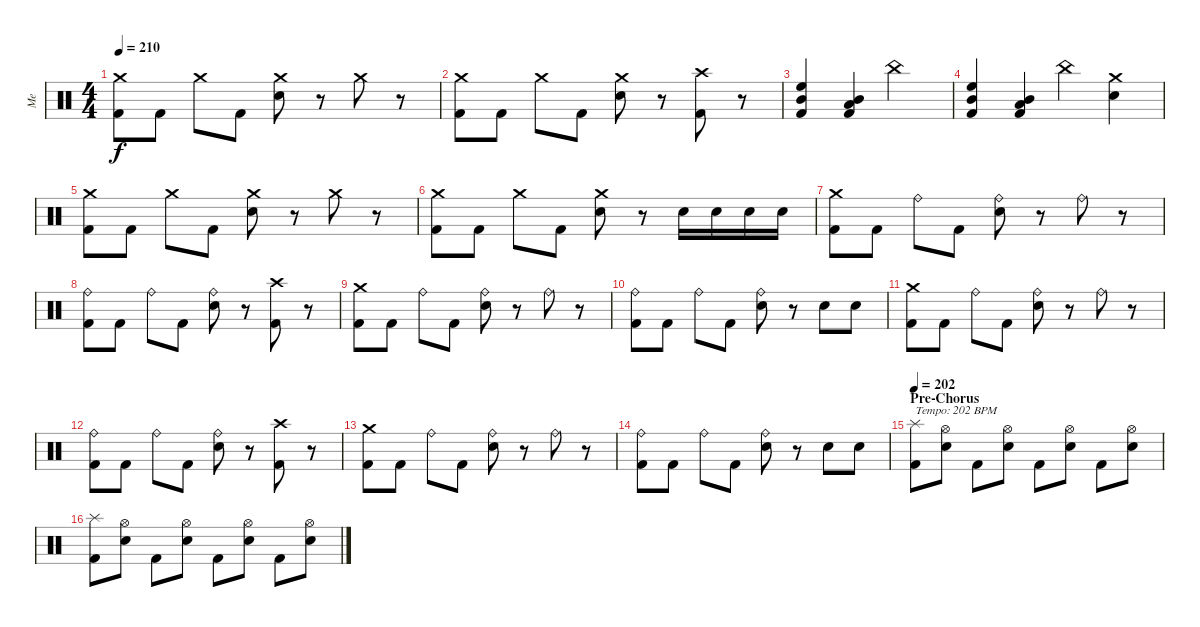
\track ("Me" "Me") {instrument percussion}
\staff {score}
\articulation defaults
\ts (4 4)
\tempo 210
\clef neutral
\ks c
("Crash medium (hit)" "Kick (hit) 2").8{dy f} "Kick (hit) 2".8 "Crash medium (hit)".8 "Kick (hit) 2".8 ("Crash medium (hit)" "Electric Snare (hit)").8 r.8 "Crash medium (hit)".8 r.8 |
("Crash medium (hit)" "Kick (hit) 2").8 "Kick (hit) 2".8 "Crash medium (hit)".8 "Kick (hit) 2".8 ("Crash medium (hit)" "Electric Snare (hit)").8 r.8 ("Crash high (hit)" "Kick (hit) 2").8 r.8 |
("High Floor Tom (hit)" "Mid Tom (hit)" "Kick (hit) 2").4 ("Mid Tom (hit)" "Low Tom (hit)" "Kick (hit) 2").4 "China (hit)".2 |
("High Floor Tom (hit)" "Mid Tom (hit)" "Kick (hit) 2").4 ("Mid Tom (hit)" "Low Tom (hit)" "Kick (hit) 2").4 "China (hit)".4 ("Crash medium (hit)" "Electric Snare (hit)").4 |
("Crash medium (hit)" "Kick (hit) 2").8 "Kick (hit) 2".8 "Crash medium (hit)".8 "Kick (hit) 2".8 ("Crash medium (hit)" "Electric Snare (hit)").8 r.8 "Crash medium (hit)".8 r.8 |
("Crash medium (hit)" "Kick (hit) 2").8 "Kick (hit) 2".8 "Crash medium (hit)".8 "Kick (hit) 2".8 ("Crash medium (hit)" "Electric Snare (hit)").8 r.8 "Electric Snare (hit)".16 "Electric Snare (hit)".16 "Electric Snare (hit)".16 "Electric Snare (hit)".16 |
("Crash medium (hit)" "Kick (hit) 2").8 "Kick (hit) 2".8 "Ride (bell)".8 "Kick (hit) 2".8 ("Ride (bell)" "Electric Snare (hit)").8 r.8 "Ride (bell)".8 r.8 |
("Ride (bell)" "Kick (hit) 2").8 "Kick (hit) 2".8 "Ride (bell)".8 "Kick (hit) 2".8 ("Ride (bell)" "Electric Snare (hit)").8 r.8 ("Crash high (hit)" "Kick (hit) 2").8 r.8 |
("Crash medium (hit)" "Kick (hit) 2").8 "Kick (hit) 2".8 "Ride (bell)".8 "Kick (hit) 2".8 ("Ride (bell)" "Electric Snare (hit)").8 r.8 "Ride (bell)".8 r.8 |
("Ride (bell)" "Kick (hit) 2").8 "Kick (hit) 2".8 "Ride (bell)".8 "Kick (hit) 2".8 ("Ride (bell)" "Electric Snare (hit)").8 r.8 "Electric Snare (hit)".8 "Electric Snare (hit)".8 |
("Crash medium (hit)" "Kick (hit) 2").8 "Kick (hit) 2".8 "Ride (bell)".8 "Kick (hit) 2".8 ("Ride (bell)" "Electric Snare (hit)").8 r.8 "Ride (bell)".8 r.8 |
("Ride (bell)" "Kick (hit) 2").8 "Kick (hit) 2".8 "Ride (bell)".8 "Kick (hit) 2".8 ("Ride (bell)" "Electric Snare (hit)").8 r.8 ("Crash high (hit)" "Kick (hit) 2").8 r.8 |
("Crash medium (hit)" "Kick (hit) 2").8 "Kick (hit) 2".8 "Ride (bell)".8 "Kick (hit) 2".8 ("Ride (bell)" "Electric Snare (hit)").8 r.8 "Ride (bell)".8 r.8 |
("Ride (bell)" "Kick (hit) 2").8 "Kick (hit) 2".8 "Ride (bell)".8 "Kick (hit) 2".8 ("Ride (bell)" "Electric Snare (hit)").8 r.8 "Electric Snare (hit)".8 "Electric Snare (hit)".8 |
\section ("" "Pre-Chorus")
\tempo 202
("Splash (hit)" "Kick (hit) 2").8{txt "Tempo: 202 BPM"} ("Hi-Hat (open)" "Electric Snare (hit)").8 "Kick (hit) 2".8 ("Hi-Hat (open)" "Electric Snare (hit)").8 "Kick (hit) 2".8 ("Hi-Hat (open)" "Electric Snare (hit)").8 "Kick (hit) 2".8 ("Hi-Hat (open)" "Electric Snare (hit)").8 |
("Splash (hit)" "Kick (hit) 2").8 ("Hi-Hat (open)" "Electric Snare (hit)").8 "Kick (hit) 2".8 ("Hi-Hat (open)" "Electric Snare (hit)").8 "Kick (hit) 2".8 ("Hi-Hat (open)" "Electric Snare (hit)").8 "Kick (hit) 2".8 ("Hi-Hat (open)" "Electric Snare (hit)").8
